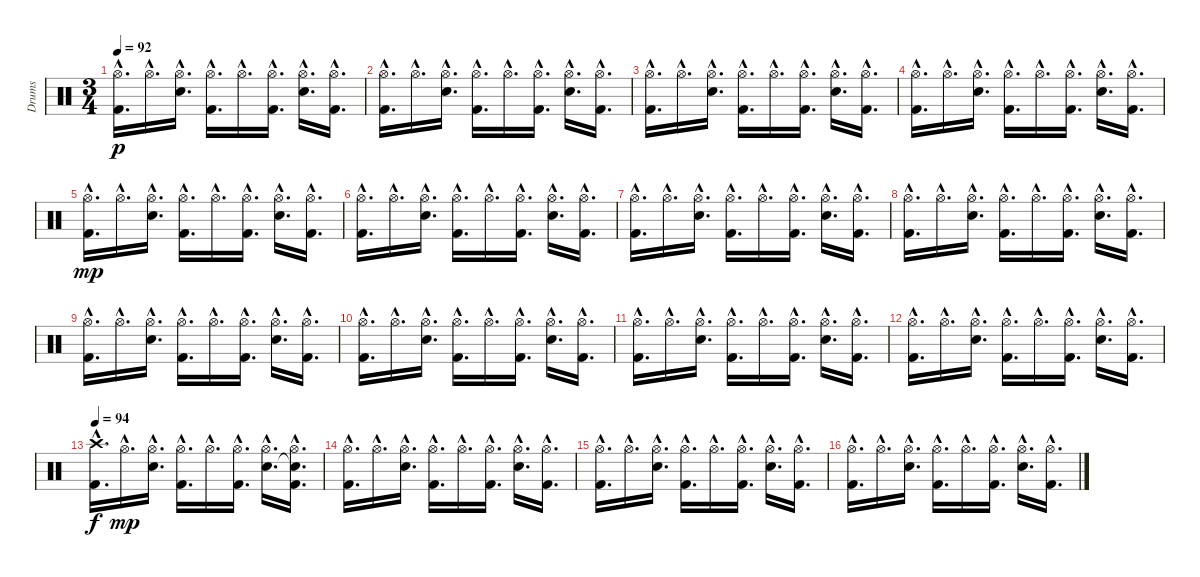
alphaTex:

\track ("Drums" "Drums") {instrument percussion}
\staff {score}
\articulation defaults
\ts (3 4)
\tempo 92
\clef neutral
\ks c
("Hi-Hat (open)"{hac} "Kick (hit) 2"{hac}).16{d dy p} "Hi-Hat (open)"{hac}.16{d} ("Hi-Hat (open)"{hac} "Electric Snare (hit)"{hac}).16{d} ("Hi-Hat (open)"{hac} "Kick (hit) 2"{hac}).16{d} "Hi-Hat (open)"{hac}.16{d} ("Hi-Hat (open)"{hac} "Kick (hit) 2"{hac}).16{d} ("Hi-Hat (open)"{hac} "Electric Snare (hit)"{hac}).16{d} ("Hi-Hat (open)"{hac} "Kick (hit) 2"{hac}).16{d} |
("Hi-Hat (open)"{hac} "Kick (hit) 2"{hac}).16{d} "Hi-Hat (open)"{hac}.16{d} ("Hi-Hat (open)"{hac} "Electric Snare (hit)"{hac}).16{d} ("Hi-Hat (open)"{hac} "Kick (hit) 2"{hac}).16{d} "Hi-Hat (open)"{hac}.16{d} ("Hi-Hat (open)"{hac} "Kick (hit) 2"{hac}).16{d} ("Hi-Hat (open)"{hac} "Electric Snare (hit)"{hac}).16{d} ("Hi-Hat (open)"{hac} "Kick (hit) 2"{hac}).16{d} |
("Hi-Hat (open)"{hac} "Kick (hit) 2"{hac}).16{d} "Hi-Hat (open)"{hac}.16{d} ("Hi-Hat (open)"{hac} "Electric Snare (hit)"{hac}).16{d} ("Hi-Hat (open)"{hac} "Kick (hit) 2"{hac}).16{d} "Hi-Hat (open)"{hac}.16{d} ("Hi-Hat (open)"{hac} "Kick (hit) 2"{hac}).16{d} ("Hi-Hat (open)"{hac} "Electric Snare (hit)"{hac}).16{d} ("Hi-Hat (open)"{hac} "Kick (hit) 2"{hac}).16{d} |
("Hi-Hat (open)"{hac} "Kick (hit) 2"{hac}).16{d} "Hi-Hat (open)"{hac}.16{d} ("Hi-Hat (open)"{hac} "Electric Snare (hit)"{hac}).16{d} ("Hi-Hat (open)"{hac} "Kick (hit) 2"{hac}).16{d} "Hi-Hat (open)"{hac}.16{d} ("Hi-Hat (open)"{hac} "Kick (hit) 2"{hac}).16{d} ("Hi-Hat (open)"{hac} "Electric Snare (hit)"{hac}).16{d} ("Hi-Hat (open)"{hac} "Kick (hit) 2"{hac}).16{d} |
("Hi-Hat (open)"{hac} "Kick (hit) 2"{hac}).16{d dy mp} "Hi-Hat (open)"{hac}.16{d} ("Hi-Hat (open)"{hac} "Electric Snare (hit)"{hac}).16{d} ("Hi-Hat (open)"{hac} "Kick (hit) 2"{hac}).16{d} "Hi-Hat (open)"{hac}.16{d} ("Hi-Hat (open)"{hac} "Kick (hit) 2"{hac}).16{d} ("Hi-Hat (open)"{hac} "Electric Snare (hit)"{hac}).16{d} ("Hi-Hat (open)"{hac} "Kick (hit) 2"{hac}).16{d} |
("Hi-Hat (open)"{hac} "Kick (hit) 2"{hac}).16{d} "Hi-Hat (open)"{hac}.16{d} ("Hi-Hat (open)"{hac} "Electric Snare (hit)"{hac}).16{d} ("Hi-Hat (open)"{hac} "Kick (hit) 2"{hac}).16{d} "Hi-Hat (open)"{hac}.16{d} ("Hi-Hat (open)"{hac} "Kick (hit) 2"{hac}).16{d} ("Hi-Hat (open)"{hac} "Electric Snare (hit)"{hac}).16{d} ("Hi-Hat (open)"{hac} "Kick (hit) 2"{hac}).16{d} |
("Hi-Hat (open)"{hac} "Kick (hit) 2"{hac}).16{d} "Hi-Hat (open)"{hac}.16{d} ("Hi-Hat (open)"{hac} "Electric Snare (hit)"{hac}).16{d} ("Hi-Hat (open)"{hac} "Kick (hit) 2"{hac}).16{d} "Hi-Hat (open)"{hac}.16{d} ("Hi-Hat (open)"{hac} "Kick (hit) 2"{hac}).16{d} ("Hi-Hat (open)"{hac} "Electric Snare (hit)"{hac}).16{d} ("Hi-Hat (open)"{hac} "Kick (hit) 2"{hac}).16{d} |
("Hi-Hat (open)"{hac} "Kick (hit) 2"{hac}).16{d} "Hi-Hat (open)"{hac}.16{d} ("Hi-Hat (open)"{hac} "Electric Snare (hit)"{hac}).16{d} ("Hi-Hat (open)"{hac} "Kick (hit) 2"{hac}).16{d} "Hi-Hat (open)"{hac}.16{d} ("Hi-Hat (open)"{hac} "Kick (hit) 2"{hac}).16{d} ("Hi-Hat (open)"{hac} "Electric Snare (hit)"{hac}).16{d} ("Hi-Hat (open)"{hac} "Kick (hit) 2"{hac}).16{d} |
("Hi-Hat (open)"{hac} "Kick (hit) 2"{hac}).16{d} "Hi-Hat (open)"{hac}.16{d} ("Hi-Hat (open)"{hac} "Electric Snare (hit)"{hac}).16{d} ("Hi-Hat (open)"{hac} "Kick (hit) 2"{hac}).16{d} "Hi-Hat (open)"{hac}.16{d} ("Hi-Hat (open)"{hac} "Kick (hit) 2"{hac}).16{d} ("Hi-Hat (open)"{hac} "Electric Snare (hit)"{hac}).16{d} ("Hi-Hat (open)"{hac} "Kick (hit) 2"{hac}).16{d} |
("Hi-Hat (open)"{hac} "Kick (hit) 2"{hac}).16{d} "Hi-Hat (open)"{hac}.16{d} ("Hi-Hat (open)"{hac} "Electric Snare (hit)"{hac}).16{d} ("Hi-Hat (open)"{hac} "Kick (hit) 2"{hac}).16{d} "Hi-Hat (open)"{hac}.16{d} ("Hi-Hat (open)"{hac} "Kick (hit) 2"{hac}).16{d} ("Hi-Hat (open)"{hac} "Electric Snare (hit)"{hac}).16{d} ("Hi-Hat (open)"{hac} "Kick (hit) 2"{hac}).16{d} |
("Hi-Hat (open)"{hac} "Kick (hit) 2"{hac}).16{d} "Hi-Hat (open)"{hac}.16{d} ("Hi-Hat (open)"{hac} "Electric Snare (hit)"{hac}).16{d} ("Hi-Hat (open)"{hac} "Kick (hit) 2"{hac}).16{d} "Hi-Hat (open)"{hac}.16{d} ("Hi-Hat (open)"{hac} "Kick (hit) 2"{hac}).16{d} ("Hi-Hat (open)"{hac} "Electric Snare (hit)"{hac}).16{d} ("Hi-Hat (open)"{hac} "Kick (hit) 2"{hac}).16{d} |
("Hi-Hat (open)"{hac} "Kick (hit) 2"{hac}).16{d} "Hi-Hat (open)"{hac}.16{d} ("Hi-Hat (open)"{hac} "Electric Snare (hit)"{hac}).16{d} ("Hi-Hat (open)"{hac} "Kick (hit) 2"{hac}).16{d} "Hi-Hat (open)"{hac}.16{d} ("Hi-Hat (open)"{hac} "Kick (hit) 2"{hac}).16{d} ("Hi-Hat (open)"{hac} "Electric Snare (hit)"{hac}).16{d} ("Hi-Hat (open)"{hac} "Kick (hit) 2"{hac}).16{d} |
\tempo 94
("Crash high (hit)"{hac} "Kick (hit) 2"{hac}).16{d dy f} "Hi-Hat (open)"{hac}.16{d dy mp} ("Hi-Hat (open)"{hac} "Electric Snare (hit)"{hac}).16{d} ("Hi-Hat (open)"{hac} "Kick (hit) 2"{hac}).16{d} "Hi-Hat (open)"{hac}.16{d} ("Hi-Hat (open)"{hac} "Kick (hit) 2"{hac}).16{d} ("Hi-Hat (open)"{hac} "Electric Snare (hit)"{hac}).16{d} ("Hi-Hat (open)"{hac} "Snare (hit)"{hac t} "Kick (hit) 2"{hac}).16{d} |
("Hi-Hat (open)"{hac} "Kick (hit) 2"{hac}).16{d} "Hi-Hat (open)"{hac}.16{d} ("Hi-Hat (open)"{hac} "Electric Snare (hit)"{hac}).16{d} ("Hi-Hat (open)"{hac} "Kick (hit) 2"{hac}).16{d} "Hi-Hat (open)"{hac}.16{d} ("Hi-Hat (open)"{hac} "Kick (hit) 2"{hac}).16{d} ("Hi-Hat (open)"{hac} "Electric Snare (hit)"{hac}).16{d} ("Hi-Hat (open)"{hac} "Kick (hit) 2"{hac}).16{d} |
("Hi-Hat (open)"{hac} "Kick (hit) 2"{hac}).16{d} "Hi-Hat (open)"{hac}.16{d} ("Hi-Hat (open)"{hac} "Electric Snare (hit)"{hac}).16{d} ("Hi-Hat (open)"{hac} "Kick (hit) 2"{hac}).16{d} "Hi-Hat (open)"{hac}.16{d} ("Hi-Hat (open)"{hac} "Kick (hit) 2"{hac}).16{d} ("Hi-Hat (open)"{hac} "Electric Snare (hit)"{hac}).16{d} ("Hi-Hat (open)"{hac} "Kick (hit) 2"{hac}).16{d} |
("Hi-Hat (open)"{hac} "Kick (hit) 2"{hac}).16{d} "Hi-Hat (open)"{hac}.16{d} ("Hi-Hat (open)"{hac} "Electric Snare (hit)"{hac}).16{d} ("Hi-Hat (open)"{hac} "Kick (hit) 2"{hac}).16{d} "Hi-Hat (open)"{hac}.16{d} ("Hi-Hat (open)"{hac} "Kick (hit) 2"{hac}).16{d} ("Hi-Hat (open)"{hac} "Electric Snare (hit)"{hac}).16{d} ("Hi-Hat (open)"{hac} "Kick (hit) 2"{hac}).16{d}
